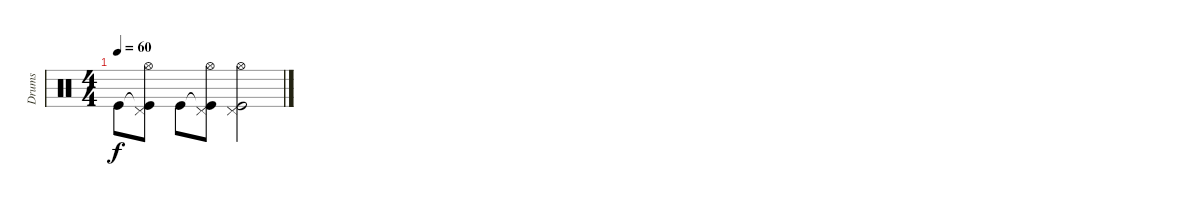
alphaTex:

\track ("Drums" "Drums") {instrument percussion}
\staff {score}
\articulation defaults
\ts (4 4)
\tempo 60
\clef neutral
\ks c "Kick (hit)".8{dy f}
("Kick (hit)"{t} "Pedal Hi-Hat (hit)" "Hi-Hat (open)").8 "Kick (hit)".8 ("Kick (hit)"{t} "Pedal Hi-Hat (hit)" "Hi-Hat (open)").8 ("Kick (hit)" "Pedal Hi-Hat (hit)" "Hi-Hat (open)").2
